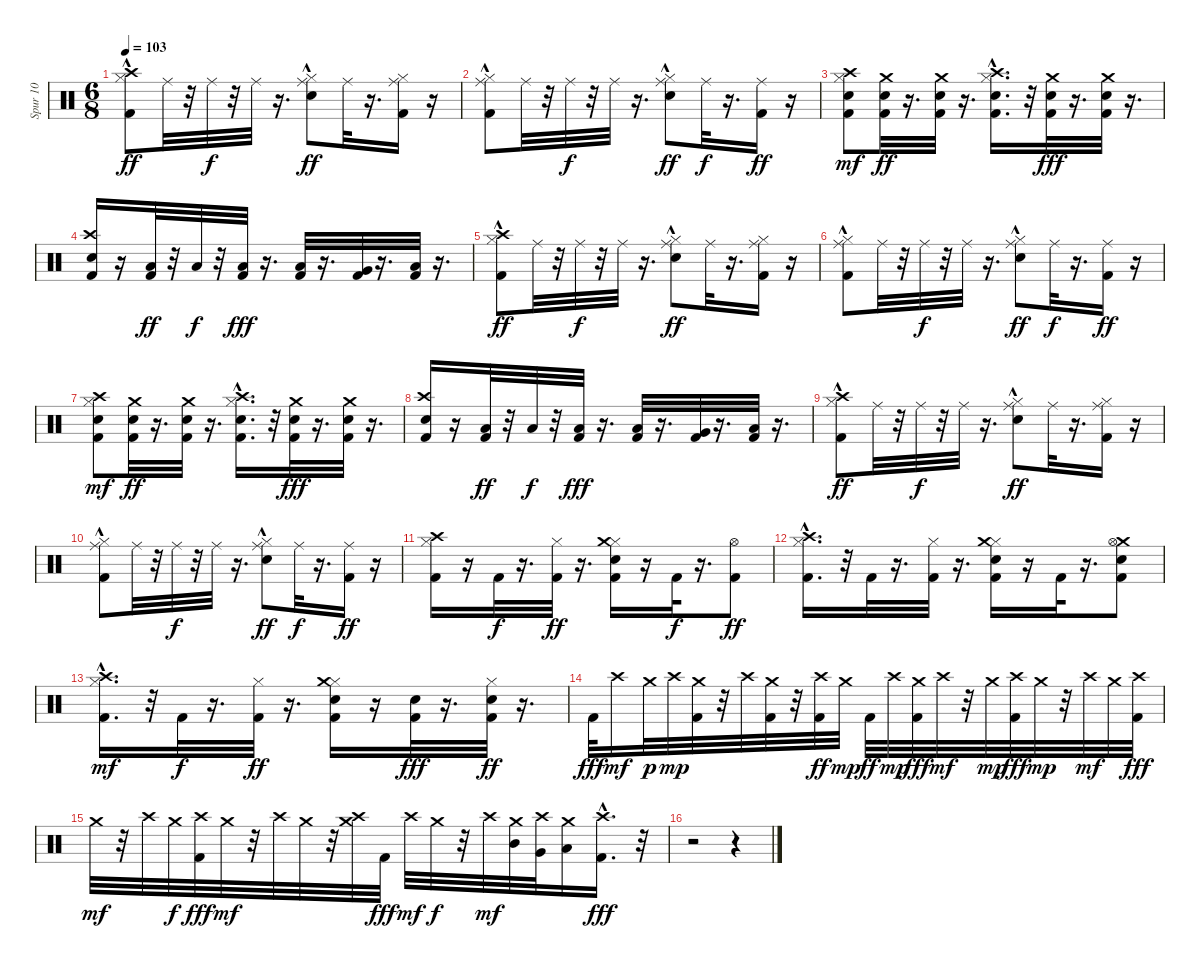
\track ("Spur 10" "Spur 10") {instrument percussion}
\staff {score}
\articulation defaults
\ts (6 8)
\tempo 103
\clef neutral
\ks c
("Kick (hit) 2"{hac} "Hi-Hat (closed)"{hac} "Crash high (hit)").8{dy ff} "Ride (middle)".32 r.32 "Ride (middle)".32{dy f} r.32 "Ride (middle)".32 r.16{d} ("Snare (hit) 2" "Hi-Hat (closed)"{hac} "Ride (middle)").8{dy ff} "Ride (middle)".32 r.16{d} ("Kick (hit) 2" "Hi-Hat (closed)" "Ride (middle)").16 r.16 |
("Kick (hit) 2"{hac} "Hi-Hat (closed)" "Ride (middle)").8 "Ride (middle)".32 r.32 "Ride (middle)".32{dy f} r.32 "Ride (middle)".32 r.16{d} ("Snare (hit) 2" "Hi-Hat (closed)"{hac} "Ride (middle)").8{dy ff} "Ride (middle)".32{dy f} r.16{d} ("Kick (hit) 2" "Ride (middle)").16{dy ff} r.16 |
("Kick (hit) 2" "Snare (hit) 2" "Hi-Hat (closed)" "Crash high (hit)").8{dy mf} ("Kick (hit) 2" "Snare (hit) 2" "Crash medium (hit)").32{dy ff} r.16{d} ("Kick (hit) 2" "Snare (hit) 2" "Crash medium (hit)").32 r.16{d} ("Kick (hit) 2" "Snare (hit) 2" "Hi-Hat (closed)"{hac} "Crash high (hit)").16{d} r.32 ("Kick (hit) 2" "Snare (hit) 2" "Crash medium (hit)").32{dy fff} r.16{d} ("Kick (hit) 2" "Snare (hit) 2" "Crash medium (hit)").32 r.16{d} |
("Kick (hit) 2" "Snare (hit) 2" "Crash high (hit)").16 r.16 ("Kick (hit) 2" "Low Tom (hit)").32{dy ff} r.32 "Low Tom (hit)".32{dy f} r.32 ("Kick (hit) 2" "Low Tom (hit)").32{dy fff} r.16{d} ("Kick (hit) 2" "Low Tom (hit)").32 r.16{d} ("Kick (hit) 2" "Very Low Tom (hit)").32 r.16{d} ("Kick (hit) 2" "Low Floor Tom (hit)").32 r.16{d} |
("Kick (hit) 2"{hac} "Hi-Hat (closed)"{hac} "Crash high (hit)").8{dy ff} "Ride (middle)".32 r.32 "Ride (middle)".32{dy f} r.32 "Ride (middle)".32 r.16{d} ("Snare (hit) 2" "Hi-Hat (closed)"{hac} "Ride (middle)").8{dy ff} "Ride (middle)".32 r.16{d} ("Kick (hit) 2" "Hi-Hat (closed)" "Ride (middle)").16 r.16 |
("Kick (hit) 2"{hac} "Hi-Hat (closed)" "Ride (middle)").8 "Ride (middle)".32 r.32 "Ride (middle)".32{dy f} r.32 "Ride (middle)".32 r.16{d} ("Snare (hit) 2" "Hi-Hat (closed)"{hac} "Ride (middle)").8{dy ff} "Ride (middle)".32{dy f} r.16{d} ("Kick (hit) 2" "Ride (middle)").16{dy ff} r.16 |
("Kick (hit) 2" "Snare (hit) 2" "Hi-Hat (closed)" "Crash high (hit)").8{dy mf} ("Kick (hit) 2" "Snare (hit) 2" "Crash medium (hit)").32{dy ff} r.16{d} ("Kick (hit) 2" "Snare (hit) 2" "Crash medium (hit)").32 r.16{d} ("Kick (hit) 2" "Snare (hit) 2" "Hi-Hat (closed)"{hac} "Crash high (hit)").16{d} r.32 ("Kick (hit) 2" "Snare (hit) 2" "Crash medium (hit)").32{dy fff} r.16{d} ("Kick (hit) 2" "Snare (hit) 2" "Crash medium (hit)").32 r.16{d} |
("Kick (hit) 2" "Snare (hit) 2" "Crash high (hit)").16 r.16 ("Kick (hit) 2" "Low Tom (hit)").32{dy ff} r.32 "Low Tom (hit)".32{dy f} r.32 ("Kick (hit) 2" "Low Tom (hit)").32{dy fff} r.16{d} ("Kick (hit) 2" "Low Tom (hit)").32 r.16{d} ("Kick (hit) 2" "Very Low Tom (hit)").32 r.16{d} ("Kick (hit) 2" "Low Floor Tom (hit)").32 r.16{d} |
("Kick (hit) 2"{hac} "Hi-Hat (closed)"{hac} "Crash high (hit)").8{dy ff} "Ride (middle)".32 r.32 "Ride (middle)".32{dy f} r.32 "Ride (middle)".32 r.16{d} ("Snare (hit) 2" "Hi-Hat (closed)"{hac} "Ride (middle)").8{dy ff} "Ride (middle)".32 r.16{d} ("Kick (hit) 2" "Hi-Hat (closed)" "Ride (middle)").16 r.16 |
("Kick (hit) 2"{hac} "Hi-Hat (closed)" "Ride (middle)").8 "Ride (middle)".32 r.32 "Ride (middle)".32{dy f} r.32 "Ride (middle)".32 r.16{d} ("Snare (hit) 2" "Hi-Hat (closed)"{hac} "Ride (middle)").8{dy ff} "Ride (middle)".32{dy f} r.16{d} ("Kick (hit) 2" "Ride (middle)").16{dy ff} r.16 |
("Kick (hit) 2" "Hi-Hat (closed)" "Crash high (hit)").16 r.16 "Kick (hit) 2".32{dy f} r.16{d} ("Kick (hit) 2" "Hi-Hat (closed)").32{dy ff} r.16{d} ("Kick (hit) 2" "Snare (hit) 2" "Hi-Hat (closed)" "Crash medium (hit)").16 r.16 "Kick (hit) 2".32{dy f} r.16{d} ("Kick (hit) 2" "Hi-Hat (open)").8{dy ff} |
("Crash high (hit)"{hac} "Kick (hit) 2" "Hi-Hat (closed)").16{d} r.32 "Kick (hit) 2".32 r.16{d} ("Kick (hit) 2" "Hi-Hat (closed)").32 r.16{d} ("Kick (hit) 2" "Snare (hit) 2" "Hi-Hat (closed)" "Crash medium (hit)").16 r.16 "Kick (hit) 2".32 r.16{d} ("Crash medium (hit)" "Kick (hit) 2" "Snare (hit) 2" "Hi-Hat (open)").8 |
("Kick (hit) 2" "Hi-Hat (closed)" "Crash high (hit)"{hac}).16{d dy mf} r.32 "Kick (hit) 2".32{dy f} r.16{d} ("Kick (hit) 2" "Hi-Hat (closed)").32{dy ff} r.16{d} ("Kick (hit) 2" "Snare (hit) 2" "Hi-Hat (closed)" "Crash medium (hit)").16 r.16 ("Kick (hit) 2" "Snare (hit) 2").32{dy fff} r.16{d} ("Kick (hit) 2" "Snare (hit) 2" "Hi-Hat (closed)").32{dy ff} r.16{d} |
"Kick (hit) 2".32{dy fff} "Crash high (hit)".16{dy mf} "Crash medium (hit)".32{dy p} "Crash high (hit)".32{dy mp} ("Kick (hit) 2" "Crash medium (hit)").32 r.32 "Crash high (hit)".32 ("Kick (hit) 2" "Crash medium (hit)").32 r.32 ("Crash high (hit)" "Kick (hit) 2").32{dy ff} "Crash medium (hit)".32{dy mp} "Kick (hit) 2".32{dy ff} "Crash high (hit)".32{dy mp} ("Crash medium (hit)" "Kick (hit) 2").32{dy fff} "Crash high (hit)".32{dy mf} r.32 "Crash medium (hit)".32{dy mp} ("Crash high (hit)" "Kick (hit) 2").32{dy fff} "Crash medium (hit)".32{dy mp} r.32 "Crash high (hit)".32{dy mf} "Crash medium (hit)".32 ("Kick (hit) 2" "Crash high (hit)").32{dy fff} |
"Crash medium (hit)".32{dy mf} r.32 "Crash high (hit)".32 "Crash medium (hit)".32{dy f} ("Kick (hit) 2" "Crash high (hit)").32{dy fff} "Crash medium (hit)".32{dy mf} r.32 "Crash high (hit)".32 "Crash medium (hit)".32 r.32 ("Crash high (hit)" "Crash medium (hit)").32 "Kick (hit) 2".32{dy fff} "Crash high (hit)".32{dy mf} "Crash medium (hit)".32{dy f} r.32 "Crash high (hit)".32{dy mf} ("Crash medium (hit)" "Mid Tom (hit)").32 ("Very Low Tom (hit)" "Crash high (hit)").32 ("Low Floor Tom (hit)" "Crash medium (hit)").16 ("Crash high (hit)" "Kick (hit) 2"{hac}).16{d dy fff} r.32 |
r.2 r.4
